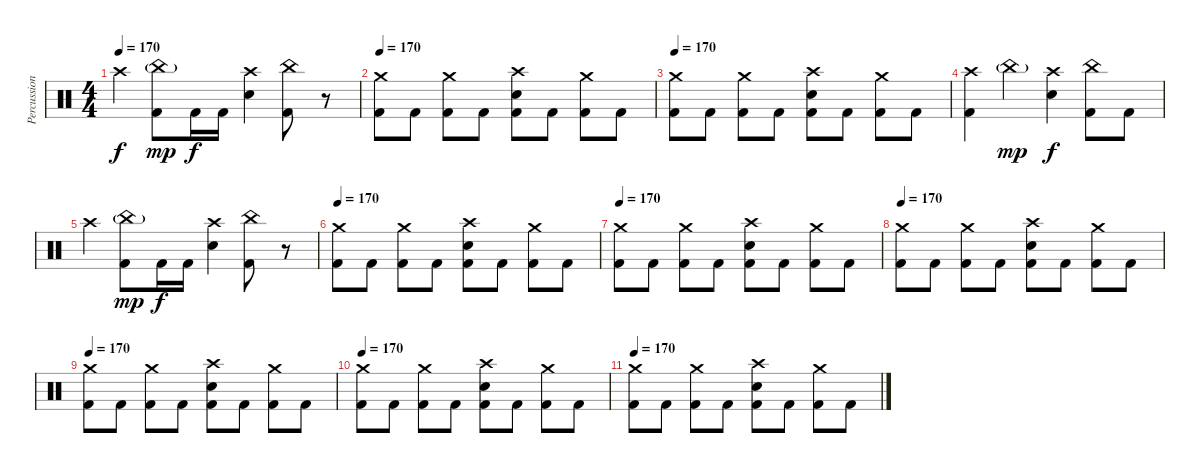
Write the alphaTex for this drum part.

\track ("Percussions" "Percussion") {instrument percussion}
\staff {score}
\articulation defaults
\ts (4 4)
\tempo 170
\clef neutral
\ks c "Crash high (hit)".4{dy f}
("Kick (hit) 2" "China (hit)"{g}).8{dy mp} "Kick (hit) 2".16{dy f} "Kick (hit) 2".16 ("Electric Snare (hit)" "Crash high (hit)").4 ("Kick (hit) 2" "China (hit)").8 r.8 |
\tempo 170
("Kick (hit) 2" "Crash medium (hit)").8 "Kick (hit) 2".8 ("Kick (hit) 2" "Crash medium (hit)").8 "Kick (hit) 2".8 ("Kick (hit) 2" "Electric Snare (hit)" "Crash high (hit)").8 "Kick (hit) 2".8 ("Kick (hit) 2" "Crash medium (hit)").8 "Kick (hit) 2".8 |
\tempo 170
("Kick (hit) 2" "Crash medium (hit)").8 "Kick (hit) 2".8 ("Kick (hit) 2" "Crash medium (hit)").8 "Kick (hit) 2".8 ("Kick (hit) 2" "Electric Snare (hit)" "Crash high (hit)").8 "Kick (hit) 2".8 ("Kick (hit) 2" "Crash medium (hit)").8 "Kick (hit) 2".8 |
("Kick (hit) 2" "Crash high (hit)").4 "China (hit)"{g}.4{dy mp} ("Electric Snare (hit)" "Crash high (hit)").4{dy f} ("Kick (hit) 2" "China (hit)").8 "Kick (hit) 2".8 |
"Crash high (hit)".4 ("Kick (hit) 2" "China (hit)"{g}).8{dy mp} "Kick (hit) 2".16{dy f} "Kick (hit) 2".16 ("Electric Snare (hit)" "Crash high (hit)").4 ("Kick (hit) 2" "China (hit)").8 r.8 |
\tempo 170
("Kick (hit) 2" "Crash medium (hit)").8 "Kick (hit) 2".8 ("Kick (hit) 2" "Crash medium (hit)").8 "Kick (hit) 2".8 ("Kick (hit) 2" "Electric Snare (hit)" "Crash high (hit)").8 "Kick (hit) 2".8 ("Kick (hit) 2" "Crash medium (hit)").8 "Kick (hit) 2".8 |
\tempo 170
("Kick (hit) 2" "Crash medium (hit)").8 "Kick (hit) 2".8 ("Kick (hit) 2" "Crash medium (hit)").8 "Kick (hit) 2".8 ("Kick (hit) 2" "Electric Snare (hit)" "Crash high (hit)").8 "Kick (hit) 2".8 ("Kick (hit) 2" "Crash medium (hit)").8 "Kick (hit) 2".8 |
\tempo 170
("Kick (hit) 2" "Crash medium (hit)").8 "Kick (hit) 2".8 ("Kick (hit) 2" "Crash medium (hit)").8 "Kick (hit) 2".8 ("Kick (hit) 2" "Electric Snare (hit)" "Crash high (hit)").8 "Kick (hit) 2".8 ("Kick (hit) 2" "Crash medium (hit)").8 "Kick (hit) 2".8 |
\tempo 170
("Kick (hit) 2" "Crash medium (hit)").8 "Kick (hit) 2".8 ("Kick (hit) 2" "Crash medium (hit)").8 "Kick (hit) 2".8 ("Kick (hit) 2" "Electric Snare (hit)" "Crash high (hit)").8 "Kick (hit) 2".8 ("Kick (hit) 2" "Crash medium (hit)").8 "Kick (hit) 2".8 |
\tempo 170
("Kick (hit) 2" "Crash medium (hit)").8 "Kick (hit) 2".8 ("Kick (hit) 2" "Crash medium (hit)").8 "Kick (hit) 2".8 ("Kick (hit) 2" "Electric Snare (hit)" "Crash high (hit)").8 "Kick (hit) 2".8 ("Kick (hit) 2" "Crash medium (hit)").8 "Kick (hit) 2".8 |
\tempo 170
("Kick (hit) 2" "Crash medium (hit)").8 "Kick (hit) 2".8 ("Kick (hit) 2" "Crash medium (hit)").8 "Kick (hit) 2".8 ("Kick (hit) 2" "Electric Snare (hit)" "Crash high (hit)").8 "Kick (hit) 2".8 ("Kick (hit) 2" "Crash medium (hit)").8 "Kick (hit) 2".8
